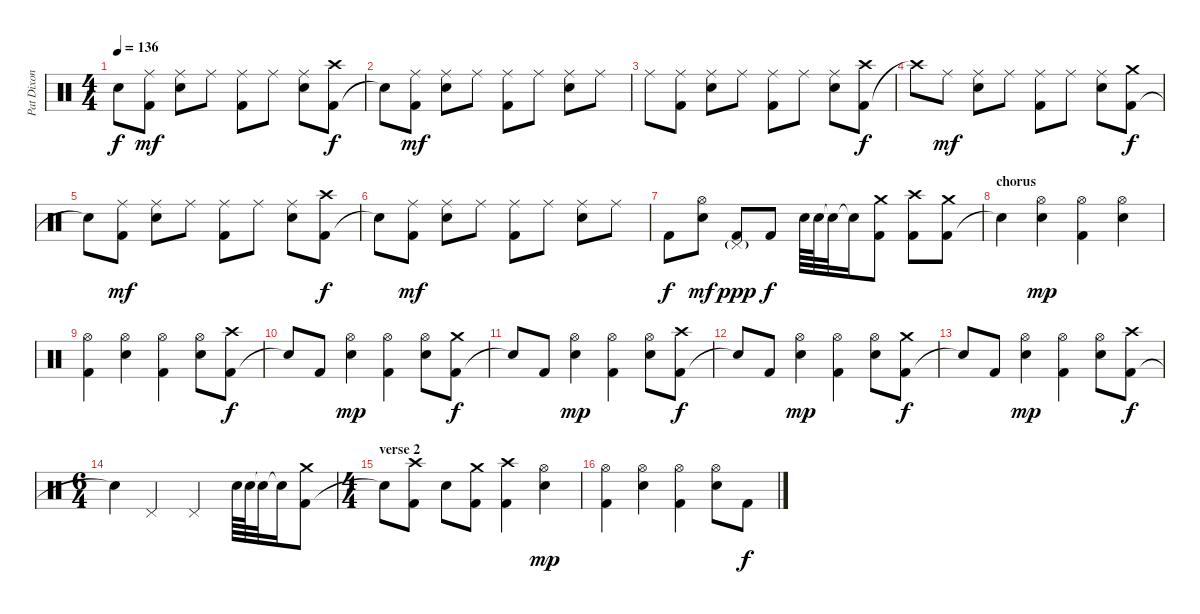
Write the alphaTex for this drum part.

\track ("Pat Dixon" "Pat Dixon") {instrument percussion}
\staff {score}
\articulation defaults
\ts (4 4)
\tempo 136
\clef neutral
\ks c "Snare (hit)"{t}.8{dy f}
("Kick (hit) 2" "Ride (middle)").8{dy mf} ("Ride (middle)" "Snare (hit) 2").8 "Ride (middle)".8 ("Kick (hit) 2" "Ride (middle)").8 "Ride (middle)".8 ("Ride (middle)" "Snare (hit) 2").8 ("Kick (hit) 2" "Crash high (hit)").8{dy f} |
"Snare (hit)"{t}.8 ("Kick (hit) 2" "Ride (middle)").8{dy mf} ("Ride (middle)" "Snare (hit) 2").8 "Ride (middle)".8 ("Kick (hit) 2" "Ride (middle)").8 "Ride (middle)".8 ("Ride (middle)" "Snare (hit) 2").8 "Ride (middle)".8 |
"Ride (middle)".8 ("Kick (hit) 2" "Ride (middle)").8 ("Ride (middle)" "Snare (hit) 2").8 "Ride (middle)".8 ("Kick (hit) 2" "Ride (middle)").8 "Ride (middle)".8 ("Ride (middle)" "Snare (hit) 2").8 ("Kick (hit) 2" "Crash high (hit)").8{dy f} |
"Crash high (hit)"{t}.8 "Ride (middle)".8{dy mf} ("Ride (middle)" "Snare (hit) 2").8 "Ride (middle)".8 ("Kick (hit) 2" "Ride (middle)").8 "Ride (middle)".8 ("Ride (middle)" "Snare (hit) 2").8 ("Kick (hit) 2" "Crash medium (hit)").8{dy f} |
"Snare (hit)"{t}.8 ("Kick (hit) 2" "Ride (middle)").8{dy mf} ("Ride (middle)" "Snare (hit) 2").8 "Ride (middle)".8 ("Kick (hit) 2" "Ride (middle)").8 "Ride (middle)".8 ("Ride (middle)" "Snare (hit) 2").8 ("Kick (hit) 2" "Crash high (hit)").8{dy f} |
"Snare (hit)"{t}.8 ("Kick (hit) 2" "Ride (middle)").8{dy mf} ("Ride (middle)" "Snare (hit) 2").8 "Ride (middle)".8 ("Kick (hit) 2" "Ride (middle)").8 "Ride (middle)".8 ("Ride (middle)" "Snare (hit) 2").8 "Ride (middle)".8 |
"Kick (hit) 2".8{dy f} ("Hi-Hat (open)" "Snare (hit) 2").8{dy mf} ("Kick (hit) 2" "Pedal Hi-Hat (hit)"{g}).8{dy ppp} "Kick (hit) 2".8{dy f} "Snare (hit) 2".64 "Snare (hit) 2".64 "Snare (hit)"{t}.32 "Snare (hit)"{t}.16 ("Kick (hit) 2" "Crash medium (hit)").8 ("Kick (hit) 2" "Crash high (hit)").8 ("Kick (hit) 2" "Crash medium (hit)").8 |
\section ("" "chorus")
"Snare (hit)"{t}.4 ("Hi-Hat (open)" "Snare (hit) 2").4{dy mp} ("Kick (hit) 2" "Hi-Hat (open)").4 ("Hi-Hat (open)" "Snare (hit) 2").4 |
("Kick (hit) 2" "Hi-Hat (open)").4 ("Hi-Hat (open)" "Snare (hit) 2").4 ("Kick (hit) 2" "Hi-Hat (open)").4 ("Hi-Hat (open)" "Snare (hit) 2").8 ("Kick (hit) 2" "Crash high (hit)").8{dy f} |
"Snare (hit)"{t}.8 "Kick (hit) 2".8 ("Hi-Hat (open)" "Snare (hit) 2").4{dy mp} ("Kick (hit) 2" "Hi-Hat (open)").4 ("Hi-Hat (open)" "Snare (hit) 2").8 ("Kick (hit) 2" "Crash medium (hit)").8{dy f} |
"Snare (hit)"{t}.8 "Kick (hit) 2".8 ("Hi-Hat (open)" "Snare (hit) 2").4{dy mp} ("Kick (hit) 2" "Hi-Hat (open)").4 ("Hi-Hat (open)" "Snare (hit) 2").8 ("Kick (hit) 2" "Crash high (hit)").8{dy f} |
"Snare (hit)"{t}.8 "Kick (hit) 2".8 ("Hi-Hat (open)" "Snare (hit) 2").4{dy mp} ("Kick (hit) 2" "Hi-Hat (open)").4 ("Hi-Hat (open)" "Snare (hit) 2").8 ("Kick (hit) 2" "Crash medium (hit)").8{dy f} |
"Snare (hit)"{t}.8 "Kick (hit) 2".8 ("Hi-Hat (open)" "Snare (hit) 2").4{dy mp} ("Kick (hit) 2" "Hi-Hat (open)").4 ("Hi-Hat (open)" "Snare (hit) 2").8 ("Kick (hit) 2" "Crash high (hit)").8{dy f} |
\ts (6 4)
"Snare (hit)"{t}.4 "Pedal Hi-Hat (hit)".2 "Pedal Hi-Hat (hit)".2 "Snare (hit) 2".64 "Snare (hit) 2".64 "Snare (hit) 2"{t}.32 "Snare (hit) 2"{t}.16 ("Kick (hit) 2" "Crash medium (hit)").8 |
\ts (4 4)
\section ("" "verse 2")
"Snare (hit)"{t}.8 ("Kick (hit) 2" "Crash high (hit)").8 "Snare (hit) 2".8 ("Kick (hit) 2" "Crash medium (hit)").8 ("Kick (hit) 2" "Crash high (hit)").4 ("Hi-Hat (open)" "Snare (hit) 2").4{dy mp} |
("Kick (hit) 2" "Hi-Hat (open)").4 ("Hi-Hat (open)" "Snare (hit) 2").4 ("Kick (hit) 2" "Hi-Hat (open)").4 ("Hi-Hat (open)" "Snare (hit) 2").8 "Kick (hit) 2".8{dy f}
